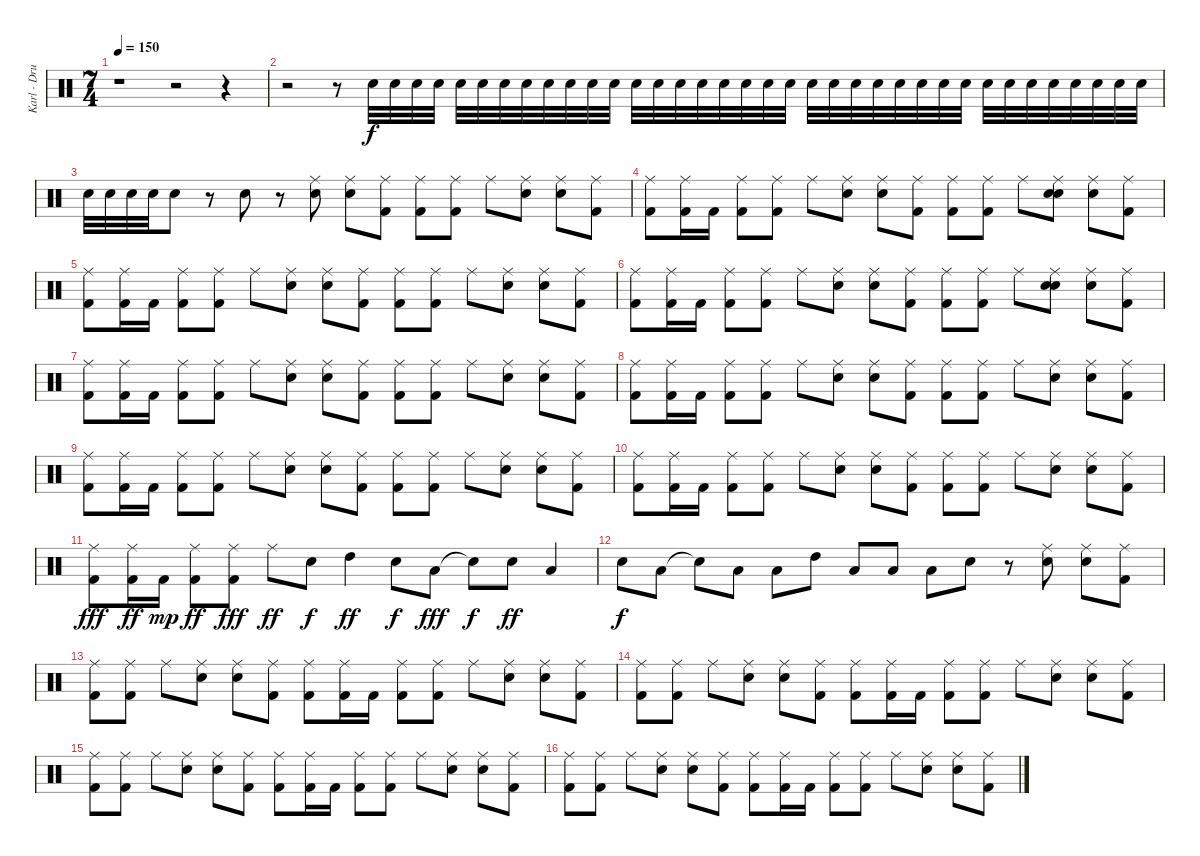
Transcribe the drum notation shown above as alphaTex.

\track ("Karl - Drums" "Karl - Dru") {instrument percussion}
\staff {score}
\articulation defaults
\ts (7 4)
\tempo 150
\clef neutral
\ks c
r.1{dy f} r.2 r.4 |
r.2 r.8 "Snare (hit) 2".32 "Snare (hit) 2".32 "Snare (hit) 2".32 "Snare (hit) 2".32 "Snare (hit) 2".32 "Snare (hit) 2".32 "Snare (hit) 2".32 "Snare (hit) 2".32 "Snare (hit) 2".32 "Snare (hit) 2".32 "Snare (hit) 2".32 "Snare (hit) 2".32 "Snare (hit) 2".32 "Snare (hit) 2".32 "Snare (hit) 2".32 "Snare (hit) 2".32 "Snare (hit) 2".32 "Snare (hit) 2".32 "Snare (hit) 2".32 "Snare (hit) 2".32 "Snare (hit) 2".32 "Snare (hit) 2".32 "Snare (hit) 2".32 "Snare (hit) 2".32 "Snare (hit) 2".32 "Snare (hit) 2".32 "Snare (hit) 2".32 "Snare (hit) 2".32 "Snare (hit) 2".32 "Snare (hit) 2".32 "Snare (hit) 2".32 "Snare (hit) 2".32 "Snare (hit) 2".32 "Snare (hit) 2".32 "Snare (hit) 2".32 "Snare (hit) 2".32 |
"Snare (hit) 2".32 "Snare (hit) 2".32 "Snare (hit) 2".32 "Snare (hit) 2".32 "Snare (hit) 2".8 r.8 "Snare (hit) 2".8 r.8 ("Ride (middle)" "Snare (hit) 2").8 ("Ride (middle)" "Snare (hit) 2").8 ("Ride (middle)" "Kick (hit) 2").8 ("Ride (middle)" "Kick (hit) 2").8 ("Ride (middle)" "Kick (hit) 2").8 "Ride (middle)".8 ("Ride (middle)" "Snare (hit) 2").8 ("Ride (middle)" "Snare (hit) 2").8 ("Ride (middle)" "Kick (hit) 2").8 |
("Ride (middle)" "Kick (hit) 2").8 ("Ride (middle)" "Kick (hit) 2").16 "Kick (hit) 2".16 ("Ride (middle)" "Kick (hit) 2").8 ("Ride (middle)" "Kick (hit) 2").8 "Ride (middle)".8 ("Ride (middle)" "Snare (hit) 2").8 ("Ride (middle)" "Snare (hit) 2").8 ("Ride (middle)" "Kick (hit) 2").8 ("Ride (middle)" "Kick (hit) 2").8 ("Ride (middle)" "Kick (hit) 2").8 "Ride (middle)".8 ("Ride (middle)" "Snare (hit) 2" "Electric Snare (hit)").8 ("Ride (middle)" "Snare (hit) 2").8 ("Ride (middle)" "Kick (hit) 2").8 |
("Ride (middle)" "Kick (hit) 2").8 ("Ride (middle)" "Kick (hit) 2").16 "Kick (hit) 2".16 ("Ride (middle)" "Kick (hit) 2").8 ("Ride (middle)" "Kick (hit) 2").8 "Ride (middle)".8 ("Ride (middle)" "Snare (hit) 2").8 ("Ride (middle)" "Snare (hit) 2").8 ("Ride (middle)" "Kick (hit) 2").8 ("Ride (middle)" "Kick (hit) 2").8 ("Ride (middle)" "Kick (hit) 2").8 "Ride (middle)".8 ("Ride (middle)" "Snare (hit) 2").8 ("Ride (middle)" "Snare (hit) 2").8 ("Ride (middle)" "Kick (hit) 2").8 |
("Ride (middle)" "Kick (hit) 2").8 ("Ride (middle)" "Kick (hit) 2").16 "Kick (hit) 2".16 ("Ride (middle)" "Kick (hit) 2").8 ("Ride (middle)" "Kick (hit) 2").8 "Ride (middle)".8 ("Ride (middle)" "Snare (hit) 2").8 ("Ride (middle)" "Snare (hit) 2").8 ("Ride (middle)" "Kick (hit) 2").8 ("Ride (middle)" "Kick (hit) 2").8 ("Ride (middle)" "Kick (hit) 2").8 "Ride (middle)".8 ("Ride (middle)" "Snare (hit) 2" "Electric Snare (hit)").8 ("Ride (middle)" "Snare (hit) 2").8 ("Ride (middle)" "Kick (hit) 2").8 |
("Ride (middle)" "Kick (hit) 2").8 ("Ride (middle)" "Kick (hit) 2").16 "Kick (hit) 2".16 ("Ride (middle)" "Kick (hit) 2").8 ("Ride (middle)" "Kick (hit) 2").8 "Ride (middle)".8 ("Ride (middle)" "Snare (hit) 2").8 ("Ride (middle)" "Snare (hit) 2").8 ("Ride (middle)" "Kick (hit) 2").8 ("Ride (middle)" "Kick (hit) 2").8 ("Ride (middle)" "Kick (hit) 2").8 "Ride (middle)".8 ("Ride (middle)" "Snare (hit) 2").8 ("Ride (middle)" "Snare (hit) 2").8 ("Ride (middle)" "Kick (hit) 2").8 |
("Ride (middle)" "Kick (hit) 2").8 ("Ride (middle)" "Kick (hit) 2").16 "Kick (hit) 2".16 ("Ride (middle)" "Kick (hit) 2").8 ("Ride (middle)" "Kick (hit) 2").8 "Ride (middle)".8 ("Ride (middle)" "Snare (hit) 2").8 ("Ride (middle)" "Snare (hit) 2").8 ("Ride (middle)" "Kick (hit) 2").8 ("Ride (middle)" "Kick (hit) 2").8 ("Ride (middle)" "Kick (hit) 2").8 "Ride (middle)".8 ("Ride (middle)" "Snare (hit) 2").8 ("Ride (middle)" "Snare (hit) 2").8 ("Ride (middle)" "Kick (hit) 2").8 |
("Ride (middle)" "Kick (hit) 2").8 ("Ride (middle)" "Kick (hit) 2").16 "Kick (hit) 2".16 ("Ride (middle)" "Kick (hit) 2").8 ("Ride (middle)" "Kick (hit) 2").8 "Ride (middle)".8 ("Ride (middle)" "Snare (hit) 2").8 ("Ride (middle)" "Snare (hit) 2").8 ("Ride (middle)" "Kick (hit) 2").8 ("Ride (middle)" "Kick (hit) 2").8 ("Ride (middle)" "Kick (hit) 2").8 "Ride (middle)".8 ("Ride (middle)" "Snare (hit) 2").8 ("Ride (middle)" "Snare (hit) 2").8 ("Ride (middle)" "Kick (hit) 2").8 |
("Ride (middle)" "Kick (hit) 2").8 ("Ride (middle)" "Kick (hit) 2").16 "Kick (hit) 2".16 ("Ride (middle)" "Kick (hit) 2").8 ("Ride (middle)" "Kick (hit) 2").8 "Ride (middle)".8 ("Ride (middle)" "Snare (hit) 2").8 ("Ride (middle)" "Snare (hit) 2").8 ("Ride (middle)" "Kick (hit) 2").8 ("Ride (middle)" "Kick (hit) 2").8 ("Ride (middle)" "Kick (hit) 2").8 "Ride (middle)".8 ("Ride (middle)" "Snare (hit) 2").8 ("Ride (middle)" "Snare (hit) 2").8 ("Ride (middle)" "Kick (hit) 2").8 |
("Ride (middle)" "Kick (hit) 2").8{dy fff} ("Ride (middle)" "Kick (hit) 2").16{dy ff} "Kick (hit) 2".16{dy mp} ("Ride (middle)" "Kick (hit) 2").8{dy ff} ("Ride (middle)" "Kick (hit) 2").8{dy fff} "Ride (middle)".8{dy ff} "Snare (hit) 2".8{dy f} "High Tom (hit)".4{dy ff} "Snare (hit) 2".8{dy f} "Low Tom (hit)".8{dy fff} "Snare (hit)"{t}.8{dy f} "Snare (hit) 2".8{dy ff} "Low Floor Tom (hit)".4 |
"Snare (hit) 2".8{dy f} "Low Tom (hit)".8 "Snare (hit)"{t}.8 "Low Floor Tom (hit)".8 "Low Tom (hit)".8 "High Tom (hit)".8 "Low Tom (hit)".8 "Low Floor Tom (hit)".8 "Low Tom (hit)".8 "Snare (hit) 2".8 r.8 ("Ride (middle)" "Snare (hit) 2").8 ("Ride (middle)" "Snare (hit) 2").8 ("Ride (middle)" "Kick (hit) 2").8 |
("Ride (middle)" "Kick (hit) 2").8 ("Ride (middle)" "Kick (hit) 2").8 "Ride (middle)".8 ("Ride (middle)" "Snare (hit) 2").8 ("Ride (middle)" "Snare (hit) 2").8 ("Ride (middle)" "Kick (hit) 2").8 ("Ride (middle)" "Kick (hit) 2").8 ("Ride (middle)" "Kick (hit) 2").16 "Kick (hit) 2".16 ("Ride (middle)" "Kick (hit) 2").8 ("Ride (middle)" "Kick (hit) 2").8 "Ride (middle)".8 ("Ride (middle)" "Snare (hit) 2").8 ("Ride (middle)" "Snare (hit) 2").8 ("Ride (middle)" "Kick (hit) 2").8 |
("Ride (middle)" "Kick (hit) 2").8 ("Ride (middle)" "Kick (hit) 2").8 "Ride (middle)".8 ("Ride (middle)" "Snare (hit) 2").8 ("Ride (middle)" "Snare (hit) 2").8 ("Ride (middle)" "Kick (hit) 2").8 ("Ride (middle)" "Kick (hit) 2").8 ("Ride (middle)" "Kick (hit) 2").16 "Kick (hit) 2".16 ("Ride (middle)" "Kick (hit) 2").8 ("Ride (middle)" "Kick (hit) 2").8 "Ride (middle)".8 ("Ride (middle)" "Snare (hit) 2").8 ("Ride (middle)" "Snare (hit) 2").8 ("Ride (middle)" "Kick (hit) 2").8 |
("Ride (middle)" "Kick (hit) 2").8 ("Ride (middle)" "Kick (hit) 2").8 "Ride (middle)".8 ("Ride (middle)" "Snare (hit) 2").8 ("Ride (middle)" "Snare (hit) 2").8 ("Ride (middle)" "Kick (hit) 2").8 ("Ride (middle)" "Kick (hit) 2").8 ("Ride (middle)" "Kick (hit) 2").16 "Kick (hit) 2".16 ("Ride (middle)" "Kick (hit) 2").8 ("Ride (middle)" "Kick (hit) 2").8 "Ride (middle)".8 ("Ride (middle)" "Snare (hit) 2").8 ("Ride (middle)" "Snare (hit) 2").8 ("Ride (middle)" "Kick (hit) 2").8 |
("Ride (middle)" "Kick (hit) 2").8 ("Ride (middle)" "Kick (hit) 2").8 "Ride (middle)".8 ("Ride (middle)" "Snare (hit) 2").8 ("Ride (middle)" "Snare (hit) 2").8 ("Ride (middle)" "Kick (hit) 2").8 ("Ride (middle)" "Kick (hit) 2").8 ("Ride (middle)" "Kick (hit) 2").16 "Kick (hit) 2".16 ("Ride (middle)" "Kick (hit) 2").8 ("Ride (middle)" "Kick (hit) 2").8 "Ride (middle)".8 ("Ride (middle)" "Snare (hit) 2").8 ("Ride (middle)" "Snare (hit) 2").8 ("Ride (middle)" "Kick (hit) 2").8
